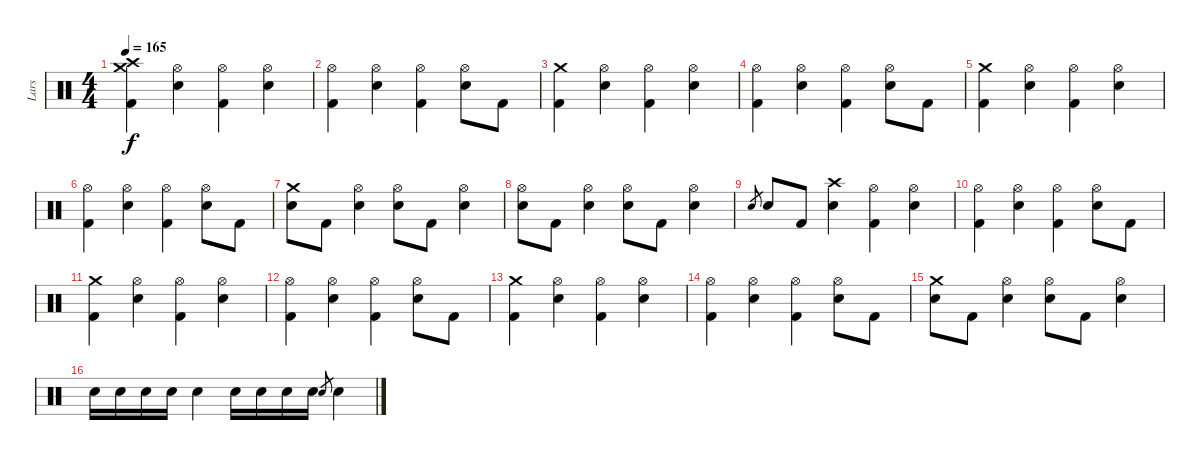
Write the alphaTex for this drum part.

\track ("Lars" "Lars") {instrument percussion}
\staff {score}
\articulation defaults
\ts (4 4)
\tempo 165
\clef neutral
\ks c
("Crash medium (hit)" "Crash high (hit)" "Kick (hit) 2").4{dy f} ("Hi-Hat (open)" "Snare (hit) 2").4 ("Hi-Hat (open)" "Kick (hit) 2").4 ("Hi-Hat (open)" "Snare (hit) 2").4 |
("Hi-Hat (open)" "Kick (hit) 2").4 ("Hi-Hat (open)" "Snare (hit) 2").4 ("Hi-Hat (open)" "Kick (hit) 2").4 ("Hi-Hat (open)" "Snare (hit) 2").8 "Kick (hit) 2".8 |
("Crash medium (hit)" "Kick (hit) 2").4 ("Hi-Hat (open)" "Snare (hit) 2").4 ("Hi-Hat (open)" "Kick (hit) 2").4 ("Hi-Hat (open)" "Snare (hit) 2").4 |
("Hi-Hat (open)" "Kick (hit) 2").4 ("Hi-Hat (open)" "Snare (hit) 2").4 ("Hi-Hat (open)" "Kick (hit) 2").4 ("Hi-Hat (open)" "Snare (hit) 2").8 "Kick (hit) 2".8 |
("Crash medium (hit)" "Kick (hit) 2").4 ("Hi-Hat (open)" "Snare (hit) 2").4 ("Hi-Hat (open)" "Kick (hit) 2").4 ("Hi-Hat (open)" "Snare (hit) 2").4 |
("Hi-Hat (open)" "Kick (hit) 2").4 ("Hi-Hat (open)" "Snare (hit) 2").4 ("Hi-Hat (open)" "Kick (hit) 2").4 ("Hi-Hat (open)" "Snare (hit) 2").8 "Kick (hit) 2".8 |
("Crash medium (hit)" "Snare (hit) 2").8 "Kick (hit) 2".8 ("Hi-Hat (open)" "Snare (hit) 2").4 ("Hi-Hat (open)" "Snare (hit) 2").8 "Kick (hit) 2".8 ("Hi-Hat (open)" "Snare (hit) 2").4 |
("Hi-Hat (open)" "Snare (hit) 2").8 "Kick (hit) 2".8 ("Hi-Hat (open)" "Snare (hit) 2").4 ("Hi-Hat (open)" "Snare (hit) 2").8 "Kick (hit) 2".8 ("Hi-Hat (open)" "Snare (hit) 2").4 |
"Snare (hit) 2".8{gr} "Snare (hit) 2".8 "Kick (hit) 2".8 ("Crash high (hit)" "Snare (hit) 2").4 ("Hi-Hat (open)" "Kick (hit) 2").4 ("Hi-Hat (open)" "Snare (hit) 2").4 |
("Hi-Hat (open)" "Kick (hit) 2").4 ("Hi-Hat (open)" "Snare (hit) 2").4 ("Hi-Hat (open)" "Kick (hit) 2").4 ("Hi-Hat (open)" "Snare (hit) 2").8 "Kick (hit) 2".8 |
("Crash medium (hit)" "Kick (hit) 2").4 ("Hi-Hat (open)" "Snare (hit) 2").4 ("Hi-Hat (open)" "Kick (hit) 2").4 ("Hi-Hat (open)" "Snare (hit) 2").4 |
("Hi-Hat (open)" "Kick (hit) 2").4 ("Hi-Hat (open)" "Snare (hit) 2").4 ("Hi-Hat (open)" "Kick (hit) 2").4 ("Hi-Hat (open)" "Snare (hit) 2").8 "Kick (hit) 2".8 |
("Crash medium (hit)" "Kick (hit) 2").4 ("Hi-Hat (open)" "Snare (hit) 2").4 ("Hi-Hat (open)" "Kick (hit) 2").4 ("Hi-Hat (open)" "Snare (hit) 2").4 |
("Hi-Hat (open)" "Kick (hit) 2").4 ("Hi-Hat (open)" "Snare (hit) 2").4 ("Hi-Hat (open)" "Kick (hit) 2").4 ("Hi-Hat (open)" "Snare (hit) 2").8 "Kick (hit) 2".8 |
("Crash medium (hit)" "Snare (hit) 2").8 "Kick (hit) 2".8 ("Hi-Hat (open)" "Snare (hit) 2").4 ("Hi-Hat (open)" "Snare (hit) 2").8 "Kick (hit) 2".8 ("Hi-Hat (open)" "Snare (hit) 2").4 |
"Snare (hit) 2".16 "Snare (hit) 2".16 "Snare (hit) 2".16 "Snare (hit) 2".16 "Snare (hit) 2".4 "Snare (hit) 2".16 "Snare (hit) 2".16 "Snare (hit) 2".16 "Snare (hit) 2".16 "Snare (hit) 2".8{gr} "Snare (hit) 2".4
